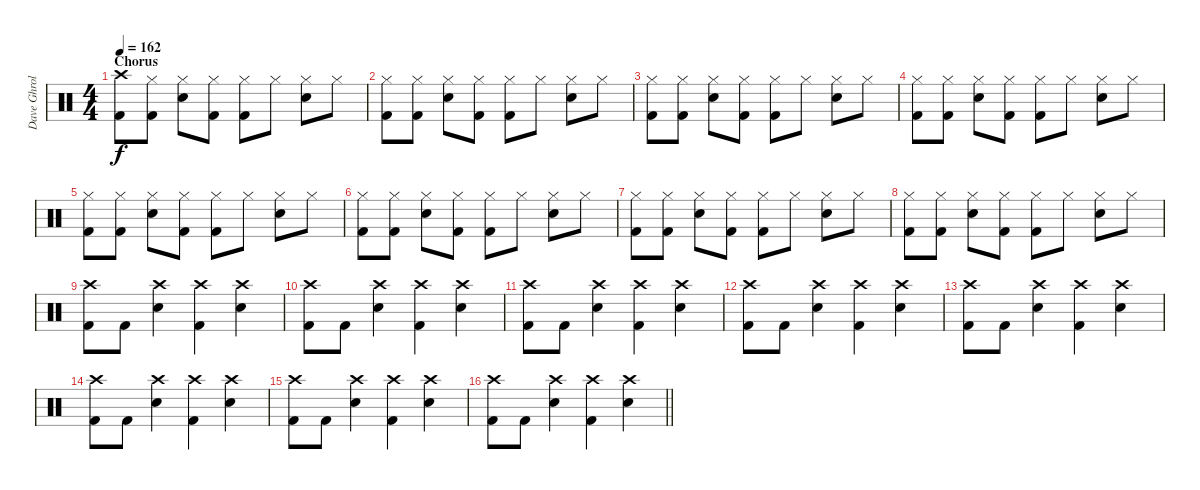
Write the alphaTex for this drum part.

\track ("Dave Ghrol" "Dave Ghrol") {instrument percussion}
\staff {score}
\articulation defaults
\ts (4 4)
\section ("" "Chorus")
\tempo 162
\clef neutral
\ks c
("Crash high (hit)" "Kick (hit) 2").8{dy f} ("Kick (hit) 2" "Hi-Hat (closed)").8 ("Snare (hit) 2" "Hi-Hat (closed)").8 ("Kick (hit) 2" "Hi-Hat (closed)").8 ("Kick (hit) 2" "Hi-Hat (closed)").8 "Hi-Hat (closed)".8 ("Snare (hit) 2" "Hi-Hat (closed)").8 "Hi-Hat (closed)".8 |
("Kick (hit) 2" "Hi-Hat (closed)").8 ("Kick (hit) 2" "Hi-Hat (closed)").8 ("Snare (hit) 2" "Hi-Hat (closed)").8 ("Kick (hit) 2" "Hi-Hat (closed)").8 ("Kick (hit) 2" "Hi-Hat (closed)").8 "Hi-Hat (closed)".8 ("Snare (hit) 2" "Hi-Hat (closed)").8 "Hi-Hat (closed)".8 |
("Kick (hit) 2" "Hi-Hat (closed)").8 ("Kick (hit) 2" "Hi-Hat (closed)").8 ("Snare (hit) 2" "Hi-Hat (closed)").8 ("Kick (hit) 2" "Hi-Hat (closed)").8 ("Kick (hit) 2" "Hi-Hat (closed)").8 "Hi-Hat (closed)".8 ("Snare (hit) 2" "Hi-Hat (closed)").8 "Hi-Hat (closed)".8 |
("Kick (hit) 2" "Hi-Hat (closed)").8 ("Kick (hit) 2" "Hi-Hat (closed)").8 ("Snare (hit) 2" "Hi-Hat (closed)").8 ("Kick (hit) 2" "Hi-Hat (closed)").8 ("Kick (hit) 2" "Hi-Hat (closed)").8 "Hi-Hat (closed)".8 ("Snare (hit) 2" "Hi-Hat (closed)").8 "Hi-Hat (closed)".8 |
("Kick (hit) 2" "Hi-Hat (closed)").8 ("Kick (hit) 2" "Hi-Hat (closed)").8 ("Snare (hit) 2" "Hi-Hat (closed)").8 ("Kick (hit) 2" "Hi-Hat (closed)").8 ("Kick (hit) 2" "Hi-Hat (closed)").8 "Hi-Hat (closed)".8 ("Snare (hit) 2" "Hi-Hat (closed)").8 "Hi-Hat (closed)".8 |
("Kick (hit) 2" "Hi-Hat (closed)").8 ("Kick (hit) 2" "Hi-Hat (closed)").8 ("Snare (hit) 2" "Hi-Hat (closed)").8 ("Kick (hit) 2" "Hi-Hat (closed)").8 ("Kick (hit) 2" "Hi-Hat (closed)").8 "Hi-Hat (closed)".8 ("Snare (hit) 2" "Hi-Hat (closed)").8 "Hi-Hat (closed)".8 |
("Kick (hit) 2" "Hi-Hat (closed)").8 ("Kick (hit) 2" "Hi-Hat (closed)").8 ("Snare (hit) 2" "Hi-Hat (closed)").8 ("Kick (hit) 2" "Hi-Hat (closed)").8 ("Kick (hit) 2" "Hi-Hat (closed)").8 "Hi-Hat (closed)".8 ("Snare (hit) 2" "Hi-Hat (closed)").8 "Hi-Hat (closed)".8 |
("Kick (hit) 2" "Hi-Hat (closed)").8 ("Kick (hit) 2" "Hi-Hat (closed)").8 ("Snare (hit) 2" "Hi-Hat (closed)").8 ("Kick (hit) 2" "Hi-Hat (closed)").8 ("Kick (hit) 2" "Hi-Hat (closed)").8 "Hi-Hat (closed)".8 ("Snare (hit) 2" "Hi-Hat (closed)").8 "Hi-Hat (closed)".8 |
("Crash high (hit)" "Kick (hit) 2").8 "Kick (hit) 2".8 ("Crash high (hit)" "Snare (hit) 2").4 ("Crash high (hit)" "Kick (hit) 2").4 ("Crash high (hit)" "Snare (hit) 2").4 |
("Crash high (hit)" "Kick (hit) 2").8 "Kick (hit) 2".8 ("Crash high (hit)" "Snare (hit) 2").4 ("Crash high (hit)" "Kick (hit) 2").4 ("Crash high (hit)" "Snare (hit) 2").4 |
("Crash high (hit)" "Kick (hit) 2").8 "Kick (hit) 2".8 ("Crash high (hit)" "Snare (hit) 2").4 ("Crash high (hit)" "Kick (hit) 2").4 ("Crash high (hit)" "Snare (hit) 2").4 |
("Crash high (hit)" "Kick (hit) 2").8 "Kick (hit) 2".8 ("Crash high (hit)" "Snare (hit) 2").4 ("Crash high (hit)" "Kick (hit) 2").4 ("Crash high (hit)" "Snare (hit) 2").4 |
("Crash high (hit)" "Kick (hit) 2").8 "Kick (hit) 2".8 ("Crash high (hit)" "Snare (hit) 2").4 ("Crash high (hit)" "Kick (hit) 2").4 ("Crash high (hit)" "Snare (hit) 2").4 |
("Crash high (hit)" "Kick (hit) 2").8 "Kick (hit) 2".8 ("Crash high (hit)" "Snare (hit) 2").4 ("Crash high (hit)" "Kick (hit) 2").4 ("Crash high (hit)" "Snare (hit) 2").4 |
("Crash high (hit)" "Kick (hit) 2").8 "Kick (hit) 2".8 ("Crash high (hit)" "Snare (hit) 2").4 ("Crash high (hit)" "Kick (hit) 2").4 ("Crash high (hit)" "Snare (hit) 2").4 |
\barLineRight lightlight
("Crash high (hit)" "Kick (hit) 2").8 "Kick (hit) 2".8 ("Crash high (hit)" "Snare (hit) 2").4 ("Crash high (hit)" "Kick (hit) 2").4 ("Crash high (hit)" "Snare (hit) 2").4
